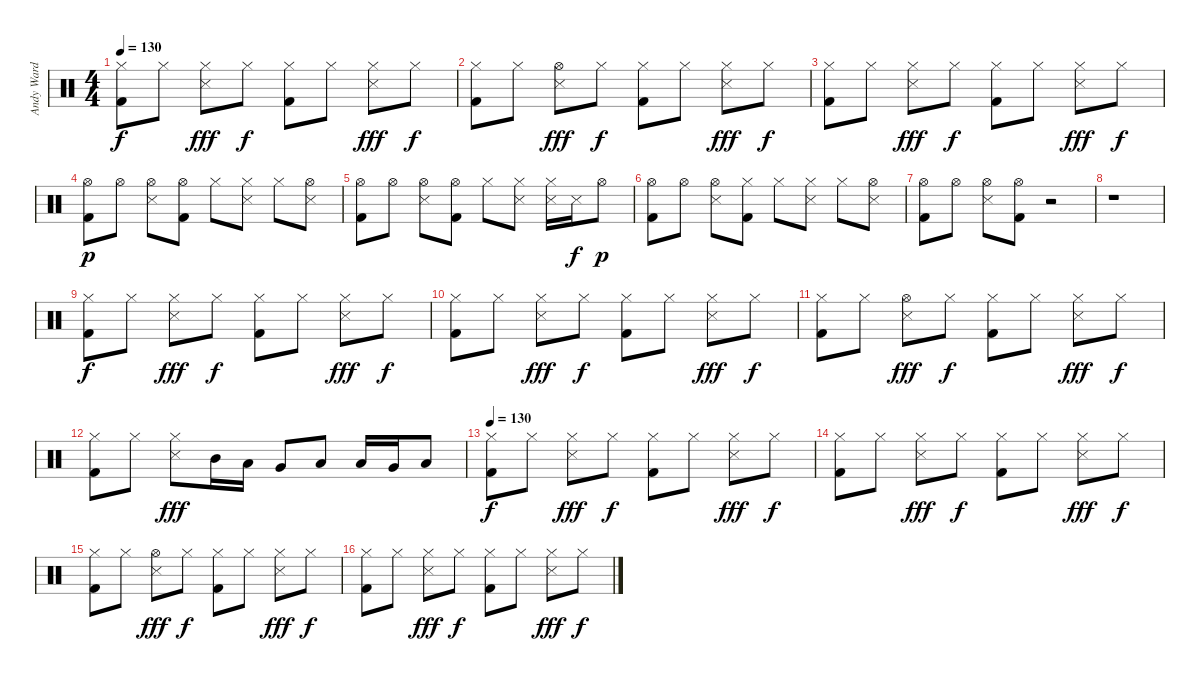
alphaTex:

\track ("Andy Ward" "Andy Ward") {instrument percussion}
\staff {score}
\articulation defaults
\ts (4 4)
\tempo 130
\clef neutral
\ks c
("Hi-Hat (closed)" "Kick (hit) 2").8{dy f} "Hi-Hat (closed)".8 ("Hi-Hat (closed)" "Snare (side stick) 3").8{dy fff} "Hi-Hat (closed)".8{dy f} ("Hi-Hat (closed)" "Kick (hit) 2").8 "Hi-Hat (closed)".8 ("Hi-Hat (closed)" "Snare (side stick) 3").8{dy fff} "Hi-Hat (closed)".8{dy f} |
("Hi-Hat (closed)" "Kick (hit) 2").8 "Hi-Hat (closed)".8 ("Hi-Hat (open)" "Snare (side stick) 3").8{dy fff} "Hi-Hat (closed)".8{dy f} ("Hi-Hat (closed)" "Kick (hit) 2").8 "Hi-Hat (closed)".8 ("Hi-Hat (closed)" "Snare (side stick) 3").8{dy fff} "Hi-Hat (closed)".8{dy f} |
("Hi-Hat (closed)" "Kick (hit) 2").8 "Hi-Hat (closed)".8 ("Hi-Hat (closed)" "Snare (side stick) 3").8{dy fff} "Hi-Hat (closed)".8{dy f} ("Hi-Hat (closed)" "Kick (hit) 2").8 "Hi-Hat (closed)".8 ("Hi-Hat (closed)" "Snare (side stick) 3").8{dy fff} "Hi-Hat (closed)".8{dy f} |
("Hi-Hat (open)" "Kick (hit) 2").8{dy p} "Hi-Hat (open)".8 ("Hi-Hat (open)" "Snare (side stick) 3").8 ("Hi-Hat (open)" "Kick (hit) 2").8 "Hi-Hat (closed)".8 ("Hi-Hat (closed)" "Snare (side stick) 3").8 "Hi-Hat (closed)".8 ("Hi-Hat (open)" "Snare (side stick) 3").8 |
("Hi-Hat (open)" "Kick (hit) 2").8 "Hi-Hat (open)".8 ("Hi-Hat (open)" "Snare (side stick) 3").8 ("Hi-Hat (open)" "Kick (hit) 2").8 "Hi-Hat (closed)".8 ("Hi-Hat (closed)" "Snare (side stick) 3").8 ("Hi-Hat (closed)" "Snare (side stick) 3").16 "Snare (side stick) 3".16{dy f} "Hi-Hat (open)".8{dy p} |
("Hi-Hat (open)" "Kick (hit) 2").8 "Hi-Hat (open)".8 ("Hi-Hat (open)" "Snare (side stick) 3").8 ("Hi-Hat (closed)" "Kick (hit) 2").8 "Hi-Hat (closed)".8 ("Hi-Hat (closed)" "Snare (side stick) 3").8 "Hi-Hat (closed)".8 ("Hi-Hat (open)" "Snare (side stick) 3").8 |
("Hi-Hat (open)" "Kick (hit) 2").8 "Hi-Hat (open)".8 ("Hi-Hat (open)" "Snare (side stick) 3").8 ("Hi-Hat (open)" "Kick (hit) 2").8 r.2 |
r.1 |
("Hi-Hat (closed)" "Kick (hit) 2").8{dy f} "Hi-Hat (closed)".8 ("Hi-Hat (closed)" "Snare (side stick) 3").8{dy fff} "Hi-Hat (closed)".8{dy f} ("Hi-Hat (closed)" "Kick (hit) 2").8 "Hi-Hat (closed)".8 ("Hi-Hat (closed)" "Snare (side stick) 3").8{dy fff} "Hi-Hat (closed)".8{dy f} |
("Hi-Hat (closed)" "Kick (hit) 2").8 "Hi-Hat (closed)".8 ("Hi-Hat (closed)" "Snare (side stick) 3").8{dy fff} "Hi-Hat (closed)".8{dy f} ("Hi-Hat (closed)" "Kick (hit) 2").8 "Hi-Hat (closed)".8 ("Hi-Hat (closed)" "Snare (side stick) 3").8{dy fff} "Hi-Hat (closed)".8{dy f} |
("Hi-Hat (closed)" "Kick (hit) 2").8 "Hi-Hat (closed)".8 ("Hi-Hat (open)" "Snare (side stick) 3").8{dy fff} "Hi-Hat (closed)".8{dy f} ("Hi-Hat (closed)" "Kick (hit) 2").8 "Hi-Hat (closed)".8 ("Hi-Hat (closed)" "Snare (side stick) 3").8{dy fff} "Hi-Hat (closed)".8{dy f} |
("Hi-Hat (closed)" "Kick (hit) 2").8 "Hi-Hat (closed)".8 ("Hi-Hat (closed)" "Snare (side stick) 3").8{dy fff} "Mid Tom (hit)".16 "Low Tom (hit)".16 "Very Low Tom (hit)".8 "Low Tom (hit)".8 "Low Tom (hit)".16 "Very Low Tom (hit)".16 "Low Floor Tom (hit)".8 |
\tempo 130
("Hi-Hat (closed)" "Kick (hit) 2").8{dy f} "Hi-Hat (closed)".8 ("Hi-Hat (closed)" "Snare (side stick) 3").8{dy fff} "Hi-Hat (closed)".8{dy f} ("Hi-Hat (closed)" "Kick (hit) 2").8 "Hi-Hat (closed)".8 ("Hi-Hat (closed)" "Snare (side stick) 3").8{dy fff} "Hi-Hat (closed)".8{dy f} |
("Hi-Hat (closed)" "Kick (hit) 2").8 "Hi-Hat (closed)".8 ("Hi-Hat (closed)" "Snare (side stick) 3").8{dy fff} "Hi-Hat (closed)".8{dy f} ("Hi-Hat (closed)" "Kick (hit) 2").8 "Hi-Hat (closed)".8 ("Hi-Hat (closed)" "Snare (side stick) 3").8{dy fff} "Hi-Hat (closed)".8{dy f} |
("Hi-Hat (closed)" "Kick (hit) 2").8 "Hi-Hat (closed)".8 ("Hi-Hat (open)" "Snare (side stick) 3").8{dy fff} "Hi-Hat (closed)".8{dy f} ("Hi-Hat (closed)" "Kick (hit) 2").8 "Hi-Hat (closed)".8 ("Hi-Hat (closed)" "Snare (side stick) 3").8{dy fff} "Hi-Hat (closed)".8{dy f} |
("Hi-Hat (closed)" "Kick (hit) 2").8 "Hi-Hat (closed)".8 ("Hi-Hat (closed)" "Snare (side stick) 3").8{dy fff} "Hi-Hat (closed)".8{dy f} ("Hi-Hat (closed)" "Kick (hit) 2").8 "Hi-Hat (closed)".8 ("Hi-Hat (closed)" "Snare (side stick) 3").8{dy fff} "Hi-Hat (closed)".8{dy f}
